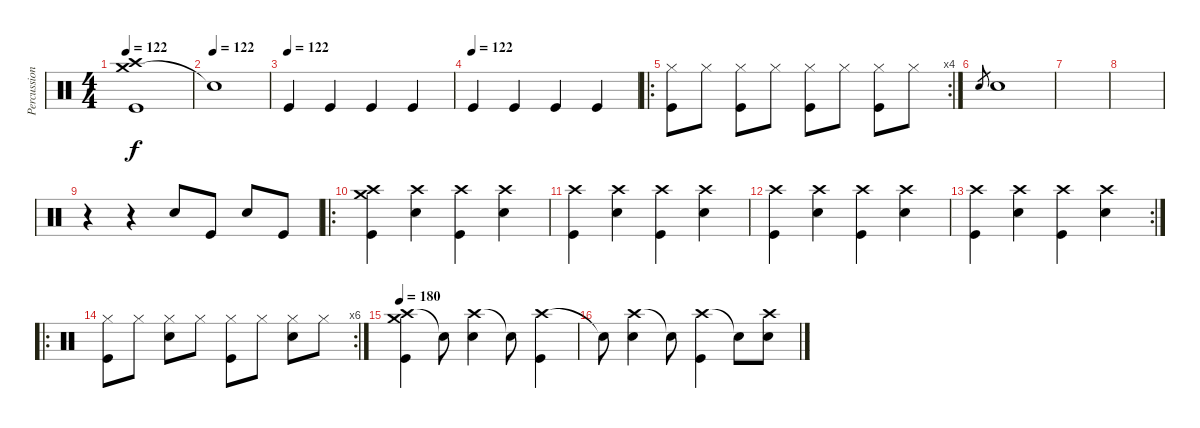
\track ("Percussion" "Percussion") {instrument percussion}
\staff {score}
\articulation defaults
\ts (4 4)
\tempo 122
\clef neutral
\ks c
("Crash medium (hit)" "Crash high (hit)" "Kick (hit)").1{dy f} |
\tempo (122)
"Snare (hit)"{t}.1 |
\tempo (122)
"Kick (hit)".4 "Kick (hit)".4 "Kick (hit)".4 "Kick (hit)".4 |
\tempo (122)
"Kick (hit)".4 "Kick (hit)".4 "Kick (hit)".4 "Kick (hit)".4 |
\ro
\rc 4
("Hi-Hat (closed)" "Kick (hit)").8 "Hi-Hat (closed)".8 ("Hi-Hat (closed)" "Kick (hit)").8 "Hi-Hat (closed)".8 ("Hi-Hat (closed)" "Kick (hit)").8 "Hi-Hat (closed)".8 ("Hi-Hat (closed)" "Kick (hit)").8 "Hi-Hat (closed)".8 |
"Snare (hit) 2".8{gr} "Snare (hit) 2".1 |
|
|
r.4 r.4 "Snare (hit) 2".8 "Kick (hit)".8 "Snare (hit) 2".8 "Kick (hit)".8 |
\ro
("Crash high (hit)" "Crash medium (hit)" "Kick (hit)").4 ("Crash high (hit)" "Snare (hit) 2").4 ("Crash high (hit)" "Kick (hit)").4 ("Crash high (hit)" "Snare (hit) 2").4 |
("Crash high (hit)" "Kick (hit)").4 ("Crash high (hit)" "Snare (hit) 2").4 ("Crash high (hit)" "Kick (hit)").4 ("Crash high (hit)" "Snare (hit) 2").4 |
("Crash high (hit)" "Kick (hit)").4 ("Crash high (hit)" "Snare (hit) 2").4 ("Crash high (hit)" "Kick (hit)").4 ("Crash high (hit)" "Snare (hit) 2").4 |
\rc 2
("Crash high (hit)" "Kick (hit)").4 ("Crash high (hit)" "Snare (hit) 2").4 ("Crash high (hit)" "Kick (hit)").4 ("Crash high (hit)" "Snare (hit) 2").4 |
\ro
\rc 6
("Hi-Hat (closed)" "Kick (hit)").8 "Hi-Hat (closed)".8 ("Hi-Hat (closed)" "Snare (hit) 2").8 "Hi-Hat (closed)".8 ("Hi-Hat (closed)" "Kick (hit)").8 "Hi-Hat (closed)".8 ("Hi-Hat (closed)" "Snare (hit) 2").8 "Hi-Hat (closed)".8 |
\tempo 180
("Crash high (hit)" "Crash medium (hit)" "Kick (hit)").4 "Snare (hit)"{t}.8 ("Crash high (hit)" "Snare (hit) 2").4 "Snare (hit)"{t}.8 ("Crash high (hit)" "Kick (hit)").4 |
"Snare (hit)"{t}.8 ("Crash high (hit)" "Snare (hit) 2").4 "Snare (hit)"{t}.8 ("Crash high (hit)" "Kick (hit)").4 "Snare (hit)"{t}.8 ("Crash high (hit)" "Snare (hit) 2").8
